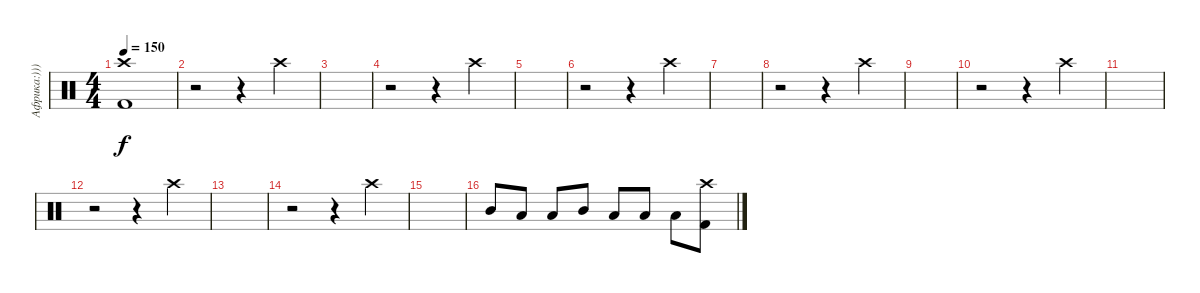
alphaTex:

\track ("Африка:)))))" "Африка:)))") {instrument percussion}
\staff {score}
\articulation defaults
\ts (4 4)
\tempo 150
\clef neutral
\ks c
("Kick (hit) 2" "Crash high (hit)").1{dy f} |
r.2 r.4 "Crash high (hit)".4 |
|
r.2 r.4 "Crash high (hit)".4 |
|
r.2 r.4 "Crash high (hit)".4 |
|
r.2 r.4 "Crash high (hit)".4 |
|
r.2 r.4 "Crash high (hit)".4 |
|
r.2 r.4 "Crash high (hit)".4 |
|
r.2 r.4 "Crash high (hit)".4 |
|
"Mid Tom (hit)".8 "Low Tom (hit)".8 "Low Tom (hit)".8 "Mid Tom (hit)".8 "Low Tom (hit)".8 "Low Tom (hit)".8 "Low Tom (hit)".8 ("Kick (hit) 2" "Crash high (hit)").8
